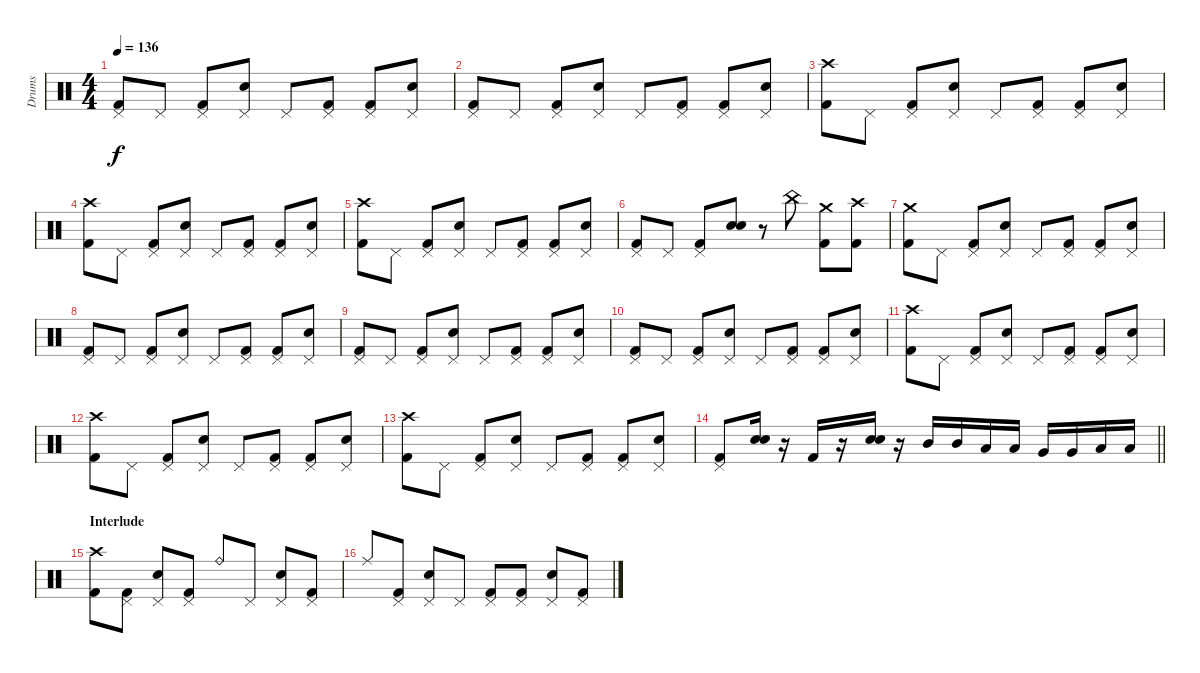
\track ("Drums" "Drums") {instrument percussion}
\staff {score}
\articulation defaults
\ts (4 4)
\tempo 136
\clef neutral
\ks c
("Pedal Hi-Hat (hit)" "Kick (hit) 2").8{dy f} "Pedal Hi-Hat (hit)".8 ("Pedal Hi-Hat (hit)" "Kick (hit) 2").8 ("Pedal Hi-Hat (hit)" "Electric Snare (hit)").8 "Pedal Hi-Hat (hit)".8 ("Pedal Hi-Hat (hit)" "Kick (hit) 2").8 ("Pedal Hi-Hat (hit)" "Kick (hit) 2").8 ("Pedal Hi-Hat (hit)" "Electric Snare (hit)").8 |
("Pedal Hi-Hat (hit)" "Kick (hit) 2").8 "Pedal Hi-Hat (hit)".8 ("Pedal Hi-Hat (hit)" "Kick (hit) 2").8 ("Pedal Hi-Hat (hit)" "Electric Snare (hit)").8 "Pedal Hi-Hat (hit)".8 ("Pedal Hi-Hat (hit)" "Kick (hit) 2").8 ("Pedal Hi-Hat (hit)" "Kick (hit) 2").8 ("Pedal Hi-Hat (hit)" "Electric Snare (hit)").8 |
("Crash high (hit)" "Kick (hit) 2").8 "Pedal Hi-Hat (hit)".8 ("Pedal Hi-Hat (hit)" "Kick (hit) 2").8 ("Pedal Hi-Hat (hit)" "Electric Snare (hit)").8 "Pedal Hi-Hat (hit)".8 ("Pedal Hi-Hat (hit)" "Kick (hit) 2").8 ("Pedal Hi-Hat (hit)" "Kick (hit) 2").8 ("Pedal Hi-Hat (hit)" "Electric Snare (hit)").8 |
("Crash high (hit)" "Kick (hit) 2").8 "Pedal Hi-Hat (hit)".8 ("Pedal Hi-Hat (hit)" "Kick (hit) 2").8 ("Pedal Hi-Hat (hit)" "Electric Snare (hit)").8 "Pedal Hi-Hat (hit)".8 ("Pedal Hi-Hat (hit)" "Kick (hit) 2").8 ("Pedal Hi-Hat (hit)" "Kick (hit) 2").8 ("Pedal Hi-Hat (hit)" "Electric Snare (hit)").8 |
("Crash high (hit)" "Kick (hit) 2").8 "Pedal Hi-Hat (hit)".8 ("Pedal Hi-Hat (hit)" "Kick (hit) 2").8 ("Pedal Hi-Hat (hit)" "Electric Snare (hit)").8 "Pedal Hi-Hat (hit)".8 ("Pedal Hi-Hat (hit)" "Kick (hit) 2").8 ("Pedal Hi-Hat (hit)" "Kick (hit) 2").8 ("Pedal Hi-Hat (hit)" "Electric Snare (hit)").8 |
("Pedal Hi-Hat (hit)" "Kick (hit) 2").8 "Pedal Hi-Hat (hit)".8 ("Pedal Hi-Hat (hit)" "Kick (hit) 2").8 ("Electric Snare (hit)" "Electric Snare (hit)").8 r.8 "China (hit)".8 ("Crash medium (hit)" "Kick (hit) 2").8 ("Crash high (hit)" "Kick (hit) 2").8 |
("Crash medium (hit)" "Kick (hit) 2").8 "Pedal Hi-Hat (hit)".8 ("Pedal Hi-Hat (hit)" "Kick (hit) 2").8 ("Pedal Hi-Hat (hit)" "Electric Snare (hit)").8 "Pedal Hi-Hat (hit)".8 ("Pedal Hi-Hat (hit)" "Kick (hit) 2").8 ("Pedal Hi-Hat (hit)" "Kick (hit) 2").8 ("Pedal Hi-Hat (hit)" "Electric Snare (hit)").8 |
("Pedal Hi-Hat (hit)" "Kick (hit) 2").8 "Pedal Hi-Hat (hit)".8 ("Pedal Hi-Hat (hit)" "Kick (hit) 2").8 ("Pedal Hi-Hat (hit)" "Electric Snare (hit)").8 "Pedal Hi-Hat (hit)".8 ("Pedal Hi-Hat (hit)" "Kick (hit) 2").8 ("Pedal Hi-Hat (hit)" "Kick (hit) 2").8 ("Pedal Hi-Hat (hit)" "Electric Snare (hit)").8 |
("Pedal Hi-Hat (hit)" "Kick (hit) 2").8 "Pedal Hi-Hat (hit)".8 ("Pedal Hi-Hat (hit)" "Kick (hit) 2").8 ("Pedal Hi-Hat (hit)" "Electric Snare (hit)").8 "Pedal Hi-Hat (hit)".8 ("Pedal Hi-Hat (hit)" "Kick (hit) 2").8 ("Pedal Hi-Hat (hit)" "Kick (hit) 2").8 ("Pedal Hi-Hat (hit)" "Electric Snare (hit)").8 |
("Pedal Hi-Hat (hit)" "Kick (hit) 2").8 "Pedal Hi-Hat (hit)".8 ("Pedal Hi-Hat (hit)" "Kick (hit) 2").8 ("Pedal Hi-Hat (hit)" "Electric Snare (hit)").8 "Pedal Hi-Hat (hit)".8 ("Pedal Hi-Hat (hit)" "Kick (hit) 2").8 ("Pedal Hi-Hat (hit)" "Kick (hit) 2").8 ("Pedal Hi-Hat (hit)" "Electric Snare (hit)").8 |
("Crash high (hit)" "Kick (hit) 2").8 "Pedal Hi-Hat (hit)".8 ("Pedal Hi-Hat (hit)" "Kick (hit) 2").8 ("Pedal Hi-Hat (hit)" "Electric Snare (hit)").8 "Pedal Hi-Hat (hit)".8 ("Pedal Hi-Hat (hit)" "Kick (hit) 2").8 ("Pedal Hi-Hat (hit)" "Kick (hit) 2").8 ("Pedal Hi-Hat (hit)" "Electric Snare (hit)").8 |
("Crash high (hit)" "Kick (hit) 2").8 "Pedal Hi-Hat (hit)".8 ("Pedal Hi-Hat (hit)" "Kick (hit) 2").8 ("Pedal Hi-Hat (hit)" "Electric Snare (hit)").8 "Pedal Hi-Hat (hit)".8 ("Pedal Hi-Hat (hit)" "Kick (hit) 2").8 ("Pedal Hi-Hat (hit)" "Kick (hit) 2").8 ("Pedal Hi-Hat (hit)" "Electric Snare (hit)").8 |
("Crash high (hit)" "Kick (hit) 2").8 "Pedal Hi-Hat (hit)".8 ("Pedal Hi-Hat (hit)" "Kick (hit) 2").8 ("Pedal Hi-Hat (hit)" "Electric Snare (hit)").8 "Pedal Hi-Hat (hit)".8 ("Pedal Hi-Hat (hit)" "Kick (hit) 2").8 ("Pedal Hi-Hat (hit)" "Kick (hit) 2").8 ("Pedal Hi-Hat (hit)" "Electric Snare (hit)").8 |
\barLineRight lightlight
("Pedal Hi-Hat (hit)" "Kick (hit) 2").8 ("Electric Snare (hit)" "Electric Snare (hit)").16 r.16 "Kick (hit) 2".16 r.16 ("Electric Snare (hit)" "Electric Snare (hit)").16 r.16 "Mid Tom (hit)".16 "Mid Tom (hit)".16 "Low Tom (hit)".16 "Low Tom (hit)".16 "Very Low Tom (hit)".16 "Very Low Tom (hit)".16 "Low Floor Tom (hit)".16 "Low Floor Tom (hit)".16 |
\section ("" "Interlude")
("Crash high (hit)" "Kick (hit) 2").8 ("Pedal Hi-Hat (hit)" "Kick (hit) 2").8 ("Pedal Hi-Hat (hit)" "Electric Snare (hit)").8 ("Pedal Hi-Hat (hit)" "Kick (hit) 2").8 "Ride (bell)".8 "Pedal Hi-Hat (hit)".8 ("Pedal Hi-Hat (hit)" "Electric Snare (hit)").8 ("Pedal Hi-Hat (hit)" "Kick (hit) 2").8 |
"Ride (middle)".8 ("Pedal Hi-Hat (hit)" "Kick (hit) 2").8 ("Pedal Hi-Hat (hit)" "Electric Snare (hit)").8 "Pedal Hi-Hat (hit)".8 ("Pedal Hi-Hat (hit)" "Kick (hit) 2").8 ("Pedal Hi-Hat (hit)" "Kick (hit) 2").8 ("Pedal Hi-Hat (hit)" "Electric Snare (hit)").8 ("Pedal Hi-Hat (hit)" "Kick (hit) 2").8
